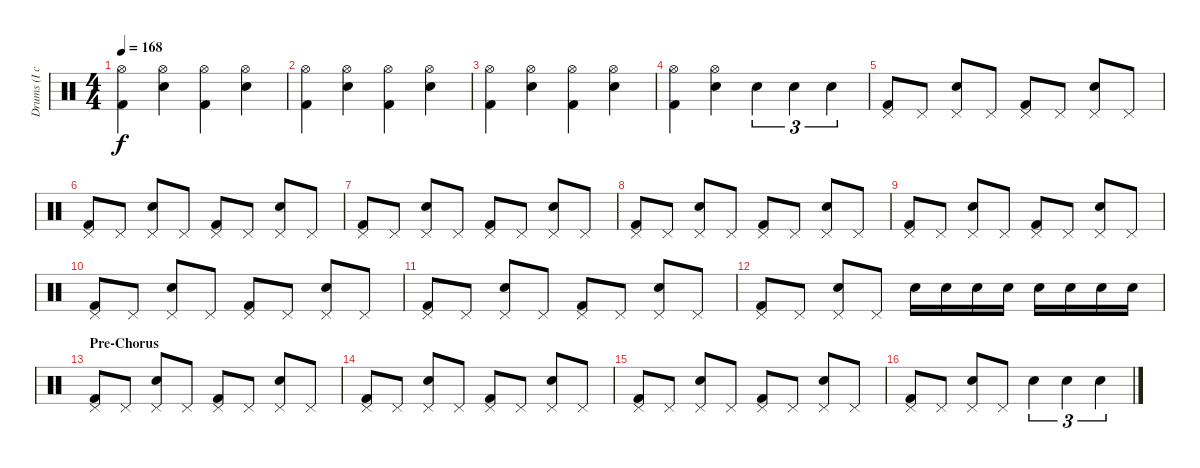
\track ("Drums (I can't tab drums too well...)" "Drums (I c") {instrument percussion}
\staff {score}
\articulation defaults
\ts (4 4)
\tempo 168
\clef neutral
\ks c
("Hi-Hat (open)" "Kick (hit) 2").4{dy f} ("Hi-Hat (open)" "Snare (hit) 2").4 ("Hi-Hat (open)" "Kick (hit) 2").4 ("Hi-Hat (open)" "Snare (hit) 2").4 |
("Hi-Hat (open)" "Kick (hit) 2").4 ("Hi-Hat (open)" "Snare (hit) 2").4 ("Hi-Hat (open)" "Kick (hit) 2").4 ("Hi-Hat (open)" "Snare (hit) 2").4 |
("Hi-Hat (open)" "Kick (hit) 2").4 ("Hi-Hat (open)" "Snare (hit) 2").4 ("Hi-Hat (open)" "Kick (hit) 2").4 ("Hi-Hat (open)" "Snare (hit) 2").4 |
("Hi-Hat (open)" "Kick (hit) 2").4 ("Hi-Hat (open)" "Snare (hit) 2").4 "Snare (hit) 2".4{tu (3 2)} "Snare (hit) 2".4{tu (3 2)} "Snare (hit) 2".4{tu (3 2)} |
("Pedal Hi-Hat (hit)" "Kick (hit) 2").8 "Pedal Hi-Hat (hit)".8 ("Pedal Hi-Hat (hit)" "Snare (hit) 2").8 "Pedal Hi-Hat (hit)".8 ("Pedal Hi-Hat (hit)" "Kick (hit) 2").8 "Pedal Hi-Hat (hit)".8 ("Pedal Hi-Hat (hit)" "Snare (hit) 2").8 "Pedal Hi-Hat (hit)".8 |
("Pedal Hi-Hat (hit)" "Kick (hit) 2").8 "Pedal Hi-Hat (hit)".8 ("Pedal Hi-Hat (hit)" "Snare (hit) 2").8 "Pedal Hi-Hat (hit)".8 ("Pedal Hi-Hat (hit)" "Kick (hit) 2").8 "Pedal Hi-Hat (hit)".8 ("Pedal Hi-Hat (hit)" "Snare (hit) 2").8 "Pedal Hi-Hat (hit)".8 |
("Pedal Hi-Hat (hit)" "Kick (hit) 2").8 "Pedal Hi-Hat (hit)".8 ("Pedal Hi-Hat (hit)" "Snare (hit) 2").8 "Pedal Hi-Hat (hit)".8 ("Pedal Hi-Hat (hit)" "Kick (hit) 2").8 "Pedal Hi-Hat (hit)".8 ("Pedal Hi-Hat (hit)" "Snare (hit) 2").8 "Pedal Hi-Hat (hit)".8 |
("Pedal Hi-Hat (hit)" "Kick (hit) 2").8 "Pedal Hi-Hat (hit)".8 ("Pedal Hi-Hat (hit)" "Snare (hit) 2").8 "Pedal Hi-Hat (hit)".8 ("Pedal Hi-Hat (hit)" "Kick (hit) 2").8 "Pedal Hi-Hat (hit)".8 ("Pedal Hi-Hat (hit)" "Snare (hit) 2").8 "Pedal Hi-Hat (hit)".8 |
("Pedal Hi-Hat (hit)" "Kick (hit) 2").8 "Pedal Hi-Hat (hit)".8 ("Pedal Hi-Hat (hit)" "Snare (hit) 2").8 "Pedal Hi-Hat (hit)".8 ("Pedal Hi-Hat (hit)" "Kick (hit) 2").8 "Pedal Hi-Hat (hit)".8 ("Pedal Hi-Hat (hit)" "Snare (hit) 2").8 "Pedal Hi-Hat (hit)".8 |
("Pedal Hi-Hat (hit)" "Kick (hit) 2").8 "Pedal Hi-Hat (hit)".8 ("Pedal Hi-Hat (hit)" "Snare (hit) 2").8 "Pedal Hi-Hat (hit)".8 ("Pedal Hi-Hat (hit)" "Kick (hit) 2").8 "Pedal Hi-Hat (hit)".8 ("Pedal Hi-Hat (hit)" "Snare (hit) 2").8 "Pedal Hi-Hat (hit)".8 |
("Pedal Hi-Hat (hit)" "Kick (hit) 2").8 "Pedal Hi-Hat (hit)".8 ("Pedal Hi-Hat (hit)" "Snare (hit) 2").8 "Pedal Hi-Hat (hit)".8 ("Pedal Hi-Hat (hit)" "Kick (hit) 2").8 "Pedal Hi-Hat (hit)".8 ("Pedal Hi-Hat (hit)" "Snare (hit) 2").8 "Pedal Hi-Hat (hit)".8 |
("Pedal Hi-Hat (hit)" "Kick (hit) 2").8 "Pedal Hi-Hat (hit)".8 ("Pedal Hi-Hat (hit)" "Snare (hit) 2").8 "Pedal Hi-Hat (hit)".8 "Snare (hit) 2".16 "Snare (hit) 2".16 "Snare (hit) 2".16 "Snare (hit) 2".16 "Snare (hit) 2".16 "Snare (hit) 2".16 "Snare (hit) 2".16 "Snare (hit) 2".16 |
\section ("" "Pre-Chorus")
("Pedal Hi-Hat (hit)" "Kick (hit) 2").8 "Pedal Hi-Hat (hit)".8 ("Pedal Hi-Hat (hit)" "Snare (hit) 2").8 "Pedal Hi-Hat (hit)".8 ("Pedal Hi-Hat (hit)" "Kick (hit) 2").8 "Pedal Hi-Hat (hit)".8 ("Pedal Hi-Hat (hit)" "Snare (hit) 2").8 "Pedal Hi-Hat (hit)".8 |
("Pedal Hi-Hat (hit)" "Kick (hit) 2").8 "Pedal Hi-Hat (hit)".8 ("Pedal Hi-Hat (hit)" "Snare (hit) 2").8 "Pedal Hi-Hat (hit)".8 ("Pedal Hi-Hat (hit)" "Kick (hit) 2").8 "Pedal Hi-Hat (hit)".8 ("Pedal Hi-Hat (hit)" "Snare (hit) 2").8 "Pedal Hi-Hat (hit)".8 |
("Pedal Hi-Hat (hit)" "Kick (hit) 2").8 "Pedal Hi-Hat (hit)".8 ("Pedal Hi-Hat (hit)" "Snare (hit) 2").8 "Pedal Hi-Hat (hit)".8 ("Pedal Hi-Hat (hit)" "Kick (hit) 2").8 "Pedal Hi-Hat (hit)".8 ("Pedal Hi-Hat (hit)" "Snare (hit) 2").8 "Pedal Hi-Hat (hit)".8 |
("Pedal Hi-Hat (hit)" "Kick (hit) 2").8 "Pedal Hi-Hat (hit)".8 ("Pedal Hi-Hat (hit)" "Snare (hit) 2").8 "Pedal Hi-Hat (hit)".8 "Snare (hit) 2".4{tu (3 2)} "Snare (hit) 2".4{tu (3 2)} "Snare (hit) 2".4{tu (3 2)}
